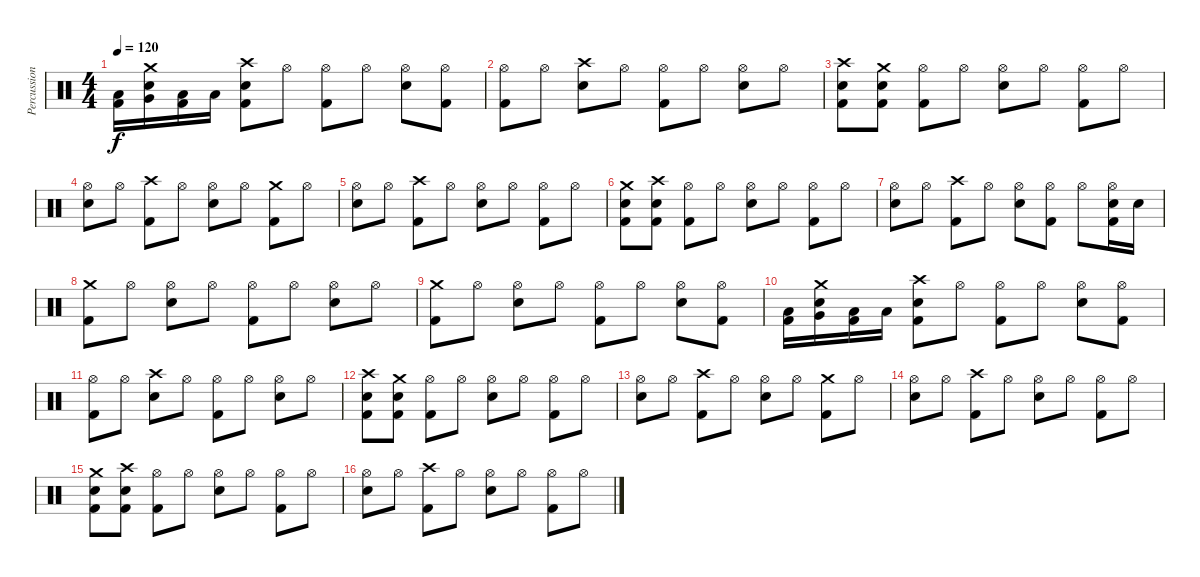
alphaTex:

\track ("Percussion" "Percussion") {instrument percussion}
\staff {score}
\articulation defaults
\ts (4 4)
\tempo 120
\clef neutral
\ks c
("Low Tom (hit)" "Kick (hit) 2").16{dy f} ("Very Low Tom (hit)" "Snare (hit) 2" "Crash medium (hit)").16 ("Low Floor Tom (hit)" "Kick (hit) 2").16 "Low Floor Tom (hit)".16 ("Crash high (hit)" "Snare (hit) 2" "Kick (hit) 2").8 "Hi-Hat (open)".8 ("Hi-Hat (open)" "Kick (hit) 2").8 "Hi-Hat (open)".8 ("Hi-Hat (open)" "Snare (hit) 2").8 ("Hi-Hat (open)" "Kick (hit) 2").8 |
("Hi-Hat (open)" "Kick (hit) 2").8 "Hi-Hat (open)".8 ("Crash high (hit)" "Snare (hit) 2").8 "Hi-Hat (open)".8 ("Hi-Hat (open)" "Kick (hit) 2").8 "Hi-Hat (open)".8 ("Hi-Hat (open)" "Snare (hit) 2").8 "Hi-Hat (open)".8 |
("Crash high (hit)" "Snare (hit) 2" "Kick (hit) 2").8 ("Crash medium (hit)" "Snare (hit) 2" "Kick (hit) 2").8 ("Hi-Hat (open)" "Kick (hit) 2").8 "Hi-Hat (open)".8 ("Hi-Hat (open)" "Snare (hit) 2").8 "Hi-Hat (open)".8 ("Hi-Hat (open)" "Kick (hit) 2").8 "Hi-Hat (open)".8 |
("Hi-Hat (open)" "Snare (hit) 2").8 "Hi-Hat (open)".8 ("Crash high (hit)" "Kick (hit) 2").8 "Hi-Hat (open)".8 ("Hi-Hat (open)" "Snare (hit) 2").8 "Hi-Hat (open)".8 ("Crash medium (hit)" "Kick (hit) 2").8 "Hi-Hat (open)".8 |
("Hi-Hat (open)" "Snare (hit) 2").8 "Hi-Hat (open)".8 ("Crash high (hit)" "Kick (hit) 2").8 "Hi-Hat (open)".8 ("Hi-Hat (open)" "Snare (hit) 2").8 "Hi-Hat (open)".8 ("Hi-Hat (open)" "Kick (hit) 2").8 "Hi-Hat (open)".8 |
("Crash medium (hit)" "Snare (hit) 2" "Kick (hit) 2").8 ("Crash high (hit)" "Snare (hit) 2" "Kick (hit) 2").8 ("Hi-Hat (open)" "Kick (hit) 2").8 "Hi-Hat (open)".8 ("Hi-Hat (open)" "Snare (hit) 2").8 "Hi-Hat (open)".8 ("Hi-Hat (open)" "Kick (hit) 2").8 "Hi-Hat (open)".8 |
("Hi-Hat (open)" "Snare (hit) 2").8 "Hi-Hat (open)".8 ("Crash high (hit)" "Kick (hit) 2").8 "Hi-Hat (open)".8 ("Hi-Hat (open)" "Snare (hit) 2").8 ("Hi-Hat (open)" "Kick (hit) 2").8 "Hi-Hat (open)".8 ("Hi-Hat (open)" "Snare (hit) 2" "Kick (hit) 2").16 "Snare (hit) 2".16 |
("Crash medium (hit)" "Kick (hit) 2").8 "Hi-Hat (open)".8 ("Hi-Hat (open)" "Snare (hit) 2").8 "Hi-Hat (open)".8 ("Hi-Hat (open)" "Kick (hit) 2").8 "Hi-Hat (open)".8 ("Hi-Hat (open)" "Snare (hit) 2").8 "Hi-Hat (open)".8 |
("Crash medium (hit)" "Kick (hit) 2").8 "Hi-Hat (open)".8 ("Hi-Hat (open)" "Snare (hit) 2").8 "Hi-Hat (open)".8 ("Hi-Hat (open)" "Kick (hit) 2").8 "Hi-Hat (open)".8 ("Hi-Hat (open)" "Snare (hit) 2").8 ("Hi-Hat (open)" "Kick (hit) 2").8 |
("Low Tom (hit)" "Kick (hit) 2").16 ("Very Low Tom (hit)" "Snare (hit) 2" "Crash medium (hit)").16 ("Low Floor Tom (hit)" "Kick (hit) 2").16 "Low Floor Tom (hit)".16 ("Crash high (hit)" "Snare (hit) 2" "Kick (hit) 2").8 "Hi-Hat (open)".8 ("Hi-Hat (open)" "Kick (hit) 2").8 "Hi-Hat (open)".8 ("Hi-Hat (open)" "Snare (hit) 2").8 ("Hi-Hat (open)" "Kick (hit) 2").8 |
("Hi-Hat (open)" "Kick (hit) 2").8 "Hi-Hat (open)".8 ("Crash high (hit)" "Snare (hit) 2").8 "Hi-Hat (open)".8 ("Hi-Hat (open)" "Kick (hit) 2").8 "Hi-Hat (open)".8 ("Hi-Hat (open)" "Snare (hit) 2").8 "Hi-Hat (open)".8 |
("Crash high (hit)" "Snare (hit) 2" "Kick (hit) 2").8 ("Crash medium (hit)" "Snare (hit) 2" "Kick (hit) 2").8 ("Hi-Hat (open)" "Kick (hit) 2").8 "Hi-Hat (open)".8 ("Hi-Hat (open)" "Snare (hit) 2").8 "Hi-Hat (open)".8 ("Hi-Hat (open)" "Kick (hit) 2").8 "Hi-Hat (open)".8 |
("Hi-Hat (open)" "Snare (hit) 2").8 "Hi-Hat (open)".8 ("Crash high (hit)" "Kick (hit) 2").8 "Hi-Hat (open)".8 ("Hi-Hat (open)" "Snare (hit) 2").8 "Hi-Hat (open)".8 ("Crash medium (hit)" "Kick (hit) 2").8 "Hi-Hat (open)".8 |
("Hi-Hat (open)" "Snare (hit) 2").8 "Hi-Hat (open)".8 ("Crash high (hit)" "Kick (hit) 2").8 "Hi-Hat (open)".8 ("Hi-Hat (open)" "Snare (hit) 2").8 "Hi-Hat (open)".8 ("Hi-Hat (open)" "Kick (hit) 2").8 "Hi-Hat (open)".8 |
("Crash medium (hit)" "Snare (hit) 2" "Kick (hit) 2").8 ("Crash high (hit)" "Snare (hit) 2" "Kick (hit) 2").8 ("Hi-Hat (open)" "Kick (hit) 2").8 "Hi-Hat (open)".8 ("Hi-Hat (open)" "Snare (hit) 2").8 "Hi-Hat (open)".8 ("Hi-Hat (open)" "Kick (hit) 2").8 "Hi-Hat (open)".8 |
("Hi-Hat (open)" "Snare (hit) 2").8 "Hi-Hat (open)".8 ("Crash high (hit)" "Kick (hit) 2").8 "Hi-Hat (open)".8 ("Hi-Hat (open)" "Snare (hit) 2").8 "Hi-Hat (open)".8 ("Hi-Hat (open)" "Kick (hit) 2").8 "Hi-Hat (open)".8
